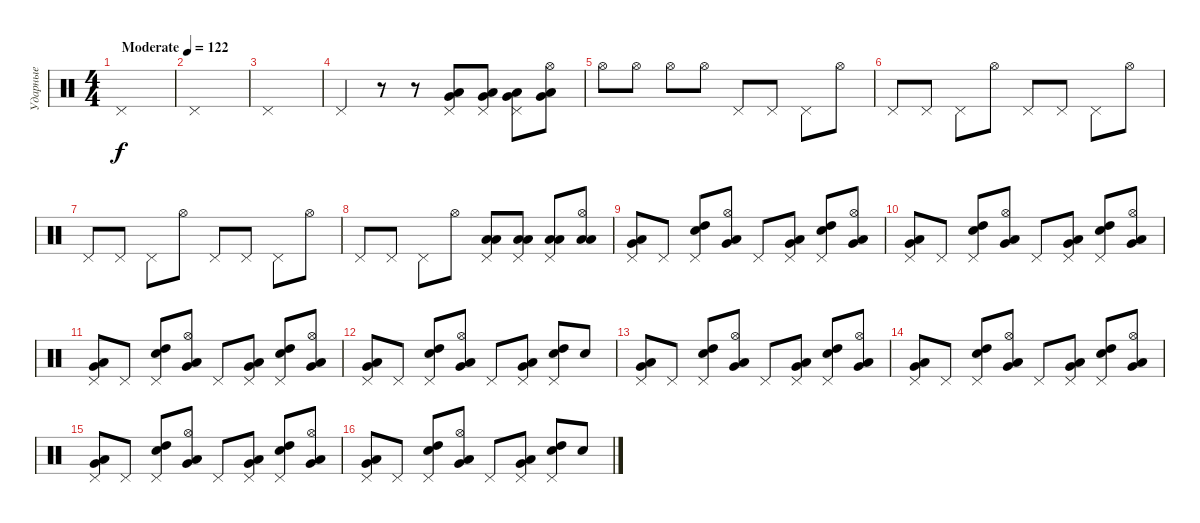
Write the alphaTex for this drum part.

\track ("Ударные" "Ударные") {instrument percussion}
\staff {score}
\articulation defaults
\ts (4 4)
\tempo (122 "Moderate")
\clef neutral
\ks c "Pedal Hi-Hat (hit)".1{dy f}
|
"Pedal Hi-Hat (hit)".1 |
"Pedal Hi-Hat (hit)".1 |
"Pedal Hi-Hat (hit)".4 r.8 r.8 ("Pedal Hi-Hat (hit)" "Very Low Tom (hit)" "Low Tom (hit)").8 ("Pedal Hi-Hat (hit)" "Very Low Tom (hit)" "Low Tom (hit)").8 ("Pedal Hi-Hat (hit)" "Very Low Tom (hit)" "Low Tom (hit)").8 ("Hi-Hat (open)" "Very Low Tom (hit)" "Low Tom (hit)").8 |
"Hi-Hat (open)".8 "Hi-Hat (open)".8 "Hi-Hat (open)".8 "Hi-Hat (open)".8 "Pedal Hi-Hat (hit)".8 "Pedal Hi-Hat (hit)".8 "Pedal Hi-Hat (hit)".8 "Hi-Hat (open)".8 |
"Pedal Hi-Hat (hit)".8 "Pedal Hi-Hat (hit)".8 "Pedal Hi-Hat (hit)".8 "Hi-Hat (open)".8 "Pedal Hi-Hat (hit)".8 "Pedal Hi-Hat (hit)".8 "Pedal Hi-Hat (hit)".8 "Hi-Hat (open)".8 |
"Pedal Hi-Hat (hit)".8 "Pedal Hi-Hat (hit)".8 "Pedal Hi-Hat (hit)".8 "Hi-Hat (open)".8 "Pedal Hi-Hat (hit)".8 "Pedal Hi-Hat (hit)".8 "Pedal Hi-Hat (hit)".8 "Hi-Hat (open)".8 |
"Pedal Hi-Hat (hit)".8 "Pedal Hi-Hat (hit)".8 "Pedal Hi-Hat (hit)".8 "Hi-Hat (open)".8 ("Pedal Hi-Hat (hit)" "Low Tom (hit)" "Low Floor Tom (hit)").8 ("Pedal Hi-Hat (hit)" "Low Tom (hit)" "Low Floor Tom (hit)").8 ("Pedal Hi-Hat (hit)" "Low Tom (hit)" "Low Floor Tom (hit)").8 ("Hi-Hat (open)" "Low Tom (hit)" "Low Floor Tom (hit)").8 |
("Pedal Hi-Hat (hit)" "Low Floor Tom (hit)" "Very Low Tom (hit)").8 "Pedal Hi-Hat (hit)".8 ("Pedal Hi-Hat (hit)" "High Tom (hit)" "Snare (hit) 2").8 ("Hi-Hat (open)" "Low Floor Tom (hit)" "Very Low Tom (hit)").8 "Pedal Hi-Hat (hit)".8 ("Pedal Hi-Hat (hit)" "Low Floor Tom (hit)" "Very Low Tom (hit)").8 ("Pedal Hi-Hat (hit)" "High Tom (hit)" "Snare (hit) 2").8 ("Hi-Hat (open)" "Low Floor Tom (hit)" "Very Low Tom (hit)").8 |
("Pedal Hi-Hat (hit)" "Low Floor Tom (hit)" "Very Low Tom (hit)").8 "Pedal Hi-Hat (hit)".8 ("Pedal Hi-Hat (hit)" "High Tom (hit)" "Snare (hit) 2").8 ("Hi-Hat (open)" "Low Floor Tom (hit)" "Very Low Tom (hit)").8 "Pedal Hi-Hat (hit)".8 ("Pedal Hi-Hat (hit)" "Low Floor Tom (hit)" "Very Low Tom (hit)").8 ("Pedal Hi-Hat (hit)" "High Tom (hit)" "Snare (hit) 2").8 ("Hi-Hat (open)" "Low Floor Tom (hit)" "Very Low Tom (hit)").8 |
("Pedal Hi-Hat (hit)" "Low Floor Tom (hit)" "Very Low Tom (hit)").8 "Pedal Hi-Hat (hit)".8 ("Pedal Hi-Hat (hit)" "High Tom (hit)" "Snare (hit) 2").8 ("Hi-Hat (open)" "Low Floor Tom (hit)" "Very Low Tom (hit)").8 "Pedal Hi-Hat (hit)".8 ("Pedal Hi-Hat (hit)" "Low Floor Tom (hit)" "Very Low Tom (hit)").8 ("Pedal Hi-Hat (hit)" "High Tom (hit)" "Snare (hit) 2").8 ("Hi-Hat (open)" "Low Floor Tom (hit)" "Very Low Tom (hit)").8 |
("Pedal Hi-Hat (hit)" "Low Floor Tom (hit)" "Very Low Tom (hit)").8 "Pedal Hi-Hat (hit)".8 ("Pedal Hi-Hat (hit)" "High Tom (hit)" "Snare (hit) 2").8 ("Hi-Hat (open)" "Low Floor Tom (hit)" "Very Low Tom (hit)").8 "Pedal Hi-Hat (hit)".8 ("Pedal Hi-Hat (hit)" "Low Floor Tom (hit)" "Very Low Tom (hit)").8 ("Pedal Hi-Hat (hit)" "High Tom (hit)" "Snare (hit) 2").8 "Snare (hit) 2".8 |
("Pedal Hi-Hat (hit)" "Low Floor Tom (hit)" "Very Low Tom (hit)").8 "Pedal Hi-Hat (hit)".8 ("Pedal Hi-Hat (hit)" "High Tom (hit)" "Snare (hit) 2").8 ("Hi-Hat (open)" "Low Floor Tom (hit)" "Very Low Tom (hit)").8 "Pedal Hi-Hat (hit)".8 ("Pedal Hi-Hat (hit)" "Low Floor Tom (hit)" "Very Low Tom (hit)").8 ("Pedal Hi-Hat (hit)" "High Tom (hit)" "Snare (hit) 2").8 ("Hi-Hat (open)" "Low Floor Tom (hit)" "Very Low Tom (hit)").8 |
("Pedal Hi-Hat (hit)" "Low Floor Tom (hit)" "Very Low Tom (hit)").8 "Pedal Hi-Hat (hit)".8 ("Pedal Hi-Hat (hit)" "High Tom (hit)" "Snare (hit) 2").8 ("Hi-Hat (open)" "Low Floor Tom (hit)" "Very Low Tom (hit)").8 "Pedal Hi-Hat (hit)".8 ("Pedal Hi-Hat (hit)" "Low Floor Tom (hit)" "Very Low Tom (hit)").8 ("Pedal Hi-Hat (hit)" "High Tom (hit)" "Snare (hit) 2").8 ("Hi-Hat (open)" "Low Floor Tom (hit)" "Very Low Tom (hit)").8 |
("Pedal Hi-Hat (hit)" "Low Floor Tom (hit)" "Very Low Tom (hit)").8 "Pedal Hi-Hat (hit)".8 ("Pedal Hi-Hat (hit)" "High Tom (hit)" "Snare (hit) 2").8 ("Hi-Hat (open)" "Low Floor Tom (hit)" "Very Low Tom (hit)").8 "Pedal Hi-Hat (hit)".8 ("Pedal Hi-Hat (hit)" "Low Floor Tom (hit)" "Very Low Tom (hit)").8 ("Pedal Hi-Hat (hit)" "High Tom (hit)" "Snare (hit) 2").8 ("Hi-Hat (open)" "Low Floor Tom (hit)" "Very Low Tom (hit)").8 |
("Pedal Hi-Hat (hit)" "Low Floor Tom (hit)" "Very Low Tom (hit)").8 "Pedal Hi-Hat (hit)".8 ("Pedal Hi-Hat (hit)" "High Tom (hit)" "Snare (hit) 2").8 ("Hi-Hat (open)" "Low Floor Tom (hit)" "Very Low Tom (hit)").8 "Pedal Hi-Hat (hit)".8 ("Pedal Hi-Hat (hit)" "Low Floor Tom (hit)" "Very Low Tom (hit)").8 ("Pedal Hi-Hat (hit)" "High Tom (hit)" "Snare (hit) 2").8 "Snare (hit) 2".8
